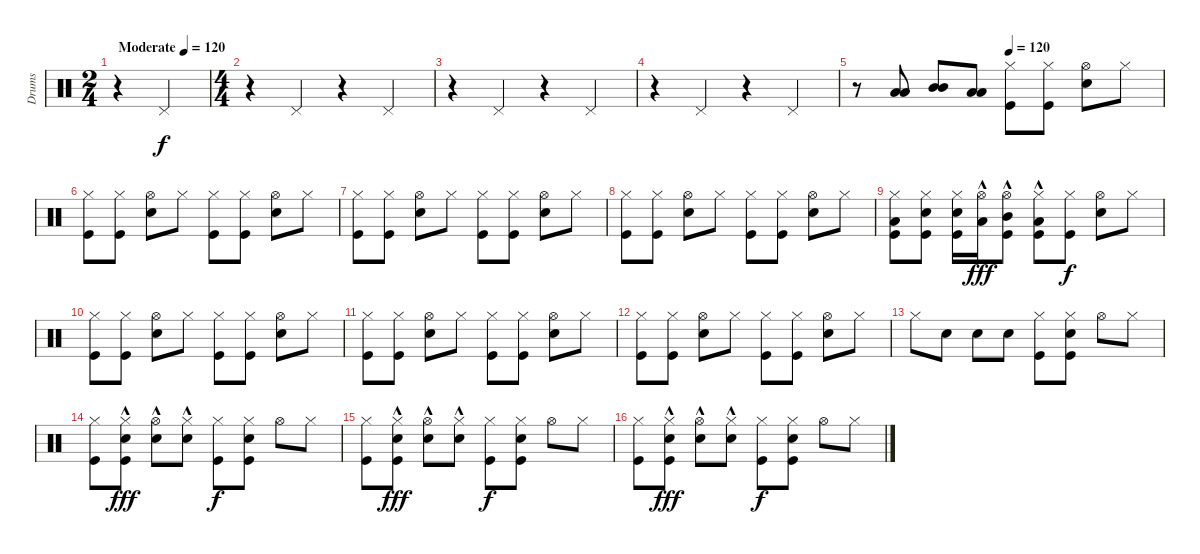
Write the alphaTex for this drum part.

\track ("Drums" "Drums") {instrument percussion}
\staff {score}
\articulation defaults
\ts (2 4)
\tempo (120 "Moderate")
\tempo 105
\tempo (120 "Moderate")
\clef neutral
\ks c
r.4{dy f} "Pedal Hi-Hat (hit)".4 |
\ts (4 4)
r.4 "Pedal Hi-Hat (hit)".4 r.4 "Pedal Hi-Hat (hit)".4 |
r.4 "Pedal Hi-Hat (hit)".4 r.4 "Pedal Hi-Hat (hit)".4 |
r.4 "Pedal Hi-Hat (hit)".4 r.4 "Pedal Hi-Hat (hit)".4 |
\tempo (120 0.5)
r.8 ("Low Tom (hit)" "Low Tom (hit)").8 ("Mid Tom (hit)" "Mid Tom (hit)").8 ("Low Floor Tom (hit)" "Low Floor Tom (hit)").8 ("Hi-Hat (closed)" "Kick (hit)").8 ("Hi-Hat (closed)" "Kick (hit)").8 ("Hi-Hat (open)" "Electric Snare (hit)").8 "Hi-Hat (closed)".8 |
("Hi-Hat (closed)" "Kick (hit)").8 ("Hi-Hat (closed)" "Kick (hit)").8 ("Hi-Hat (open)" "Electric Snare (hit)").8 "Hi-Hat (closed)".8 ("Hi-Hat (closed)" "Kick (hit)").8 ("Hi-Hat (closed)" "Kick (hit)").8 ("Hi-Hat (open)" "Electric Snare (hit)").8 "Hi-Hat (closed)".8 |
("Hi-Hat (closed)" "Kick (hit)").8 ("Hi-Hat (closed)" "Kick (hit)").8 ("Hi-Hat (open)" "Electric Snare (hit)").8 "Hi-Hat (closed)".8 ("Hi-Hat (closed)" "Kick (hit)").8 ("Hi-Hat (closed)" "Kick (hit)").8 ("Hi-Hat (open)" "Electric Snare (hit)").8 "Hi-Hat (closed)".8 |
("Hi-Hat (closed)" "Kick (hit)").8 ("Hi-Hat (closed)" "Kick (hit)").8 ("Hi-Hat (open)" "Electric Snare (hit)").8 "Hi-Hat (closed)".8 ("Hi-Hat (closed)" "Kick (hit)").8 ("Hi-Hat (closed)" "Kick (hit)").8 ("Hi-Hat (open)" "Electric Snare (hit)").8 "Hi-Hat (closed)".8 |
("Hi-Hat (closed)" "Low Floor Tom (hit)" "Kick (hit)").8 ("Hi-Hat (closed)" "Electric Snare (hit)" "Kick (hit)").8 ("Hi-Hat (closed)" "Electric Snare (hit)" "Kick (hit)").16 ("Hi-Hat (open)" "Low Tom (hit)"{hac}).16{dy fff} ("Hi-Hat (open)" "Mid Tom (hit)"{hac} "Kick (hit)").8 ("Hi-Hat (closed)" "Low Floor Tom (hit)"{hac} "Kick (hit)").8 ("Hi-Hat (closed)" "Kick (hit)").8{dy f} ("Hi-Hat (open)" "Electric Snare (hit)").8 "Hi-Hat (closed)".8 |
("Hi-Hat (closed)" "Kick (hit)").8 ("Hi-Hat (closed)" "Kick (hit)").8 ("Hi-Hat (open)" "Electric Snare (hit)").8 "Hi-Hat (closed)".8 ("Hi-Hat (closed)" "Kick (hit)").8 ("Hi-Hat (closed)" "Kick (hit)").8 ("Hi-Hat (open)" "Electric Snare (hit)").8 "Hi-Hat (closed)".8 |
("Hi-Hat (closed)" "Kick (hit)").8 ("Hi-Hat (closed)" "Kick (hit)").8 ("Hi-Hat (open)" "Electric Snare (hit)").8 "Hi-Hat (closed)".8 ("Hi-Hat (closed)" "Kick (hit)").8 ("Hi-Hat (closed)" "Kick (hit)").8 ("Hi-Hat (open)" "Electric Snare (hit)").8 "Hi-Hat (closed)".8 |
("Hi-Hat (closed)" "Kick (hit)").8 ("Hi-Hat (closed)" "Kick (hit)").8 ("Hi-Hat (open)" "Electric Snare (hit)").8 "Hi-Hat (closed)".8 ("Hi-Hat (closed)" "Kick (hit)").8 ("Hi-Hat (closed)" "Kick (hit)").8 ("Hi-Hat (open)" "Electric Snare (hit)").8 "Hi-Hat (closed)".8 |
"Hi-Hat (closed)".8 "Electric Snare (hit)".8 "Electric Snare (hit)".8 "Electric Snare (hit)".8 ("Hi-Hat (closed)" "Kick (hit)").8 ("Hi-Hat (closed)" "Electric Snare (hit)" "Kick (hit)").8 "Hi-Hat (open)".8 "Hi-Hat (closed)".8 |
("Hi-Hat (closed)" "Kick (hit)").8 ("Hi-Hat (closed)" "Electric Snare (hit)"{hac} "Kick (hit)").8{dy fff} ("Hi-Hat (open)" "Electric Snare (hit)"{hac}).8 ("Hi-Hat (closed)" "Electric Snare (hit)"{hac}).8 ("Hi-Hat (closed)" "Kick (hit)").8{dy f} ("Hi-Hat (closed)" "Electric Snare (hit)" "Kick (hit)").8 "Hi-Hat (open)".8 "Hi-Hat (closed)".8 |
("Hi-Hat (closed)" "Kick (hit)").8 ("Hi-Hat (closed)" "Electric Snare (hit)"{hac} "Kick (hit)").8{dy fff} ("Hi-Hat (open)" "Electric Snare (hit)"{hac}).8 ("Hi-Hat (closed)" "Electric Snare (hit)"{hac}).8 ("Hi-Hat (closed)" "Kick (hit)").8{dy f} ("Hi-Hat (closed)" "Electric Snare (hit)" "Kick (hit)").8 "Hi-Hat (open)".8 "Hi-Hat (closed)".8 |
("Hi-Hat (closed)" "Kick (hit)").8 ("Hi-Hat (closed)" "Electric Snare (hit)"{hac} "Kick (hit)").8{dy fff} ("Hi-Hat (open)" "Electric Snare (hit)"{hac}).8 ("Hi-Hat (closed)" "Electric Snare (hit)"{hac}).8 ("Hi-Hat (closed)" "Kick (hit)").8{dy f} ("Hi-Hat (closed)" "Electric Snare (hit)" "Kick (hit)").8 "Hi-Hat (open)".8 "Hi-Hat (closed)".8
